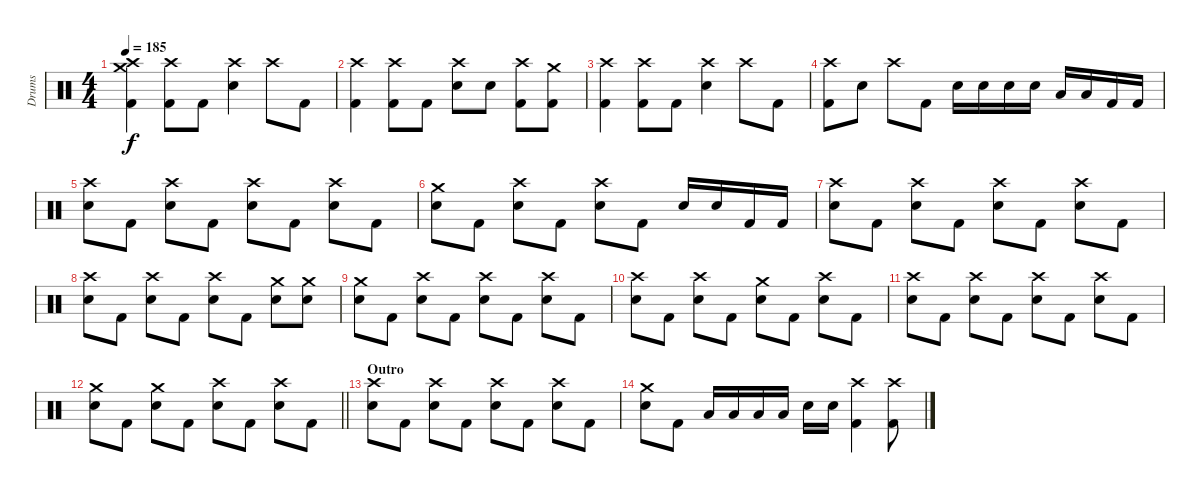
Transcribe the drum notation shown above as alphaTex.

\track ("Drums" "Drums") {instrument percussion}
\staff {score}
\articulation defaults
\ts (4 4)
\tempo 185
\clef neutral
\ks c
("Crash medium (hit)" "Crash high (hit)" "Kick (hit) 2").4{dy f} ("Crash high (hit)" "Kick (hit) 2").8 "Kick (hit) 2".8 ("Crash high (hit)" "Electric Snare (hit)").4 "Crash high (hit)".8 "Kick (hit) 2".8 |
("Crash high (hit)" "Kick (hit) 2").4 ("Crash high (hit)" "Kick (hit) 2").8 "Kick (hit) 2".8 ("Crash high (hit)" "Electric Snare (hit)").8 "Electric Snare (hit)".8 ("Crash high (hit)" "Kick (hit) 2").8 ("Crash medium (hit)" "Kick (hit) 2").8 |
("Crash high (hit)" "Kick (hit) 2").4 ("Crash high (hit)" "Kick (hit) 2").8 "Kick (hit) 2".8 ("Crash high (hit)" "Electric Snare (hit)").4 "Crash high (hit)".8 "Kick (hit) 2".8 |
("Crash high (hit)" "Kick (hit) 2").8 "Electric Snare (hit)".8 "Crash high (hit)".8 "Kick (hit) 2".8 "Electric Snare (hit)".16 "Electric Snare (hit)".16 "Electric Snare (hit)".16 "Electric Snare (hit)".16 "Low Tom (hit)".16 "Low Tom (hit)".16 "Kick (hit) 2".16 "Kick (hit) 2".16 |
("Crash high (hit)" "Electric Snare (hit)").8 "Kick (hit) 2".8 ("Crash high (hit)" "Electric Snare (hit)").8 "Kick (hit) 2".8 ("Crash high (hit)" "Electric Snare (hit)").8 "Kick (hit) 2".8 ("Crash high (hit)" "Electric Snare (hit)").8 "Kick (hit) 2".8 |
("Crash medium (hit)" "Electric Snare (hit)").8 "Kick (hit) 2".8 ("Crash high (hit)" "Electric Snare (hit)").8 "Kick (hit) 2".8 ("Crash high (hit)" "Electric Snare (hit)").8 "Kick (hit) 2".8 "Electric Snare (hit)".16 "Electric Snare (hit)".16 "Kick (hit) 2".16 "Kick (hit) 2".16 |
("Crash high (hit)" "Electric Snare (hit)").8 "Kick (hit) 2".8 ("Crash high (hit)" "Electric Snare (hit)").8 "Kick (hit) 2".8 ("Crash high (hit)" "Electric Snare (hit)").8 "Kick (hit) 2".8 ("Crash high (hit)" "Electric Snare (hit)").8 "Kick (hit) 2".8 |
("Crash high (hit)" "Electric Snare (hit)").8 "Kick (hit) 2".8 ("Crash high (hit)" "Electric Snare (hit)").8 "Kick (hit) 2".8 ("Crash high (hit)" "Electric Snare (hit)").8 "Kick (hit) 2".8 ("Crash medium (hit)" "Electric Snare (hit)").8 ("Crash medium (hit)" "Electric Snare (hit)").8 |
("Crash medium (hit)" "Electric Snare (hit)").8 "Kick (hit) 2".8 ("Crash high (hit)" "Electric Snare (hit)").8 "Kick (hit) 2".8 ("Crash high (hit)" "Electric Snare (hit)").8 "Kick (hit) 2".8 ("Crash high (hit)" "Electric Snare (hit)").8 "Kick (hit) 2".8 |
("Crash high (hit)" "Electric Snare (hit)").8 "Kick (hit) 2".8 ("Crash high (hit)" "Electric Snare (hit)").8 "Kick (hit) 2".8 ("Crash medium (hit)" "Electric Snare (hit)").8 "Kick (hit) 2".8 ("Crash high (hit)" "Electric Snare (hit)").8 "Kick (hit) 2".8 |
("Crash high (hit)" "Electric Snare (hit)").8 "Kick (hit) 2".8 ("Crash high (hit)" "Electric Snare (hit)").8 "Kick (hit) 2".8 ("Crash high (hit)" "Electric Snare (hit)").8 "Kick (hit) 2".8 ("Crash high (hit)" "Electric Snare (hit)").8 "Kick (hit) 2".8 |
\barLineRight lightlight
("Crash medium (hit)" "Electric Snare (hit)").8 "Kick (hit) 2".8 ("Crash medium (hit)" "Electric Snare (hit)").8 "Kick (hit) 2".8 ("Crash high (hit)" "Electric Snare (hit)").8 "Kick (hit) 2".8 ("Crash high (hit)" "Electric Snare (hit)").8 "Kick (hit) 2".8 |
\section ("" "Outro")
("Crash high (hit)" "Electric Snare (hit)").8 "Kick (hit) 2".8 ("Crash high (hit)" "Electric Snare (hit)").8 "Kick (hit) 2".8 ("Crash high (hit)" "Electric Snare (hit)").8 "Kick (hit) 2".8 ("Crash high (hit)" "Electric Snare (hit)").8 "Kick (hit) 2".8 |
("Crash medium (hit)" "Electric Snare (hit)").8 "Kick (hit) 2".8 "Low Tom (hit)".16 "Low Tom (hit)".16 "Low Tom (hit)".16 "Low Tom (hit)".16 "Electric Snare (hit)".16 "Electric Snare (hit)".16 ("Crash high (hit)" "Kick (hit) 2").4 ("Crash high (hit)" "Kick (hit) 2").8
